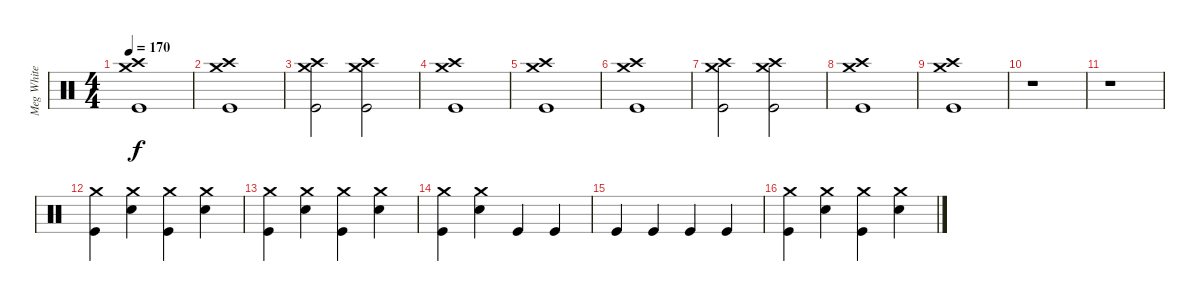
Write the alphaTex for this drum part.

\track ("Meg White" "Meg White") {instrument percussion}
\staff {score}
\articulation defaults
\ts (4 4)
\tempo 170
\clef neutral
\ks c
("Kick (hit)" "Crash high (hit)" "Crash medium (hit)").1{dy f} |
("Kick (hit)" "Crash high (hit)" "Crash medium (hit)").1 |
("Kick (hit)" "Crash high (hit)" "Crash medium (hit)").2 ("Kick (hit)" "Crash high (hit)" "Crash medium (hit)").2 |
("Kick (hit)" "Crash high (hit)" "Crash medium (hit)").1 |
("Kick (hit)" "Crash high (hit)" "Crash medium (hit)").1 |
("Kick (hit)" "Crash high (hit)" "Crash medium (hit)").1 |
("Kick (hit)" "Crash high (hit)" "Crash medium (hit)").2 ("Kick (hit)" "Crash high (hit)" "Crash medium (hit)").2 |
("Kick (hit)" "Crash high (hit)" "Crash medium (hit)").1 |
("Kick (hit)" "Crash high (hit)" "Crash medium (hit)").1 |
r.1 |
r.1 |
("Kick (hit)" "Crash medium (hit)").4 ("Snare (hit) 2" "Crash medium (hit)").4 ("Kick (hit)" "Crash medium (hit)").4 ("Snare (hit) 2" "Crash medium (hit)").4 |
("Kick (hit)" "Crash medium (hit)").4 ("Snare (hit) 2" "Crash medium (hit)").4 ("Kick (hit)" "Crash medium (hit)").4 ("Snare (hit) 2" "Crash medium (hit)").4 |
("Kick (hit)" "Crash medium (hit)").4 ("Snare (hit) 2" "Crash medium (hit)").4 "Kick (hit)".4 "Kick (hit)".4 |
"Kick (hit)".4 "Kick (hit)".4 "Kick (hit)".4 "Kick (hit)".4 |
("Kick (hit)" "Crash medium (hit)").4 ("Snare (hit) 2" "Crash medium (hit)").4 ("Kick (hit)" "Crash medium (hit)").4 ("Snare (hit) 2" "Crash medium (hit)").4
